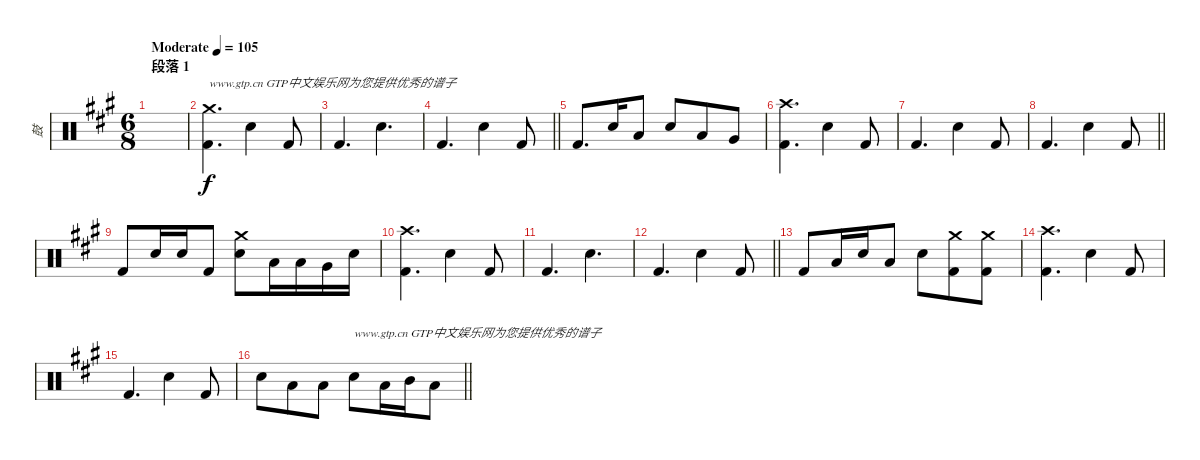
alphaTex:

\track ("鼓" "鼓") {instrument percussion}
\staff {score}
\articulation defaults
\ts (6 8)
\section ("" "段落 1")
\tempo (105 "Moderate")
\clef neutral
\ks a
|
("Crash medium (hit)" "Kick (hit) 2").4{d txt "www.gtp.cn GTP中文娱乐网为您提供优秀的谱子"} "Electric Snare (hit)".4 "Kick (hit) 2".8 |
"Kick (hit) 2".4{d} "Electric Snare (hit)".4{d} |
\barLineRight lightlight "Kick (hit) 2".4{d} "Electric Snare (hit)".4 "Kick (hit) 2".8
|
"Kick (hit) 2".8{d} "Electric Snare (hit)".16 "Low Tom (hit)".8 "Electric Snare (hit)".8 "Low Tom (hit)".8 "Very Low Tom (hit)".8 |
("Crash high (hit)" "Kick (hit) 2").4{d} "Electric Snare (hit)".4 "Kick (hit) 2".8 |
"Kick (hit) 2".4{d} "Electric Snare (hit)".4 "Kick (hit) 2".8 |
\barLineRight lightlight "Kick (hit) 2".4{d} "Electric Snare (hit)".4 "Kick (hit) 2".8
|
"Kick (hit) 2".8 "Electric Snare (hit)".16 "Electric Snare (hit)".16 "Kick (hit) 2".8 ("Crash medium (hit)" "Electric Snare (hit)").8 "Low Tom (hit)".16 "Low Tom (hit)".16 "Very Low Tom (hit)".16 "Electric Snare (hit)".16 |
("Crash high (hit)" "Kick (hit) 2").4{d} "Electric Snare (hit)".4 "Kick (hit) 2".8 |
"Kick (hit) 2".4{d} "Electric Snare (hit)".4{d} |
\barLineRight lightlight "Kick (hit) 2".4{d} "Electric Snare (hit)".4 "Kick (hit) 2".8
|
"Kick (hit) 2".8 "Low Tom (hit)".16 "Electric Snare (hit)".16 "Low Tom (hit)".8 "Electric Snare (hit)".8 ("Crash medium (hit)" "Kick (hit) 2").8 ("Crash medium (hit)" "Kick (hit) 2").8 |
("Crash high (hit)" "Kick (hit) 2").4{d} "Electric Snare (hit)".4 "Kick (hit) 2".8 |
"Kick (hit) 2".4{d} "Electric Snare (hit)".4 "Kick (hit) 2".8 |
\barLineRight lightlight "Electric Snare (hit)".8 "Low Tom (hit)".8 "Low Tom (hit)".8 "Electric Snare (hit)".8{txt "www.gtp.cn GTP中文娱乐网为您提供优秀的谱子"} "Low Tom (hit)".16 "Mid Tom (hit)".16 "Low Tom (hit)".8
